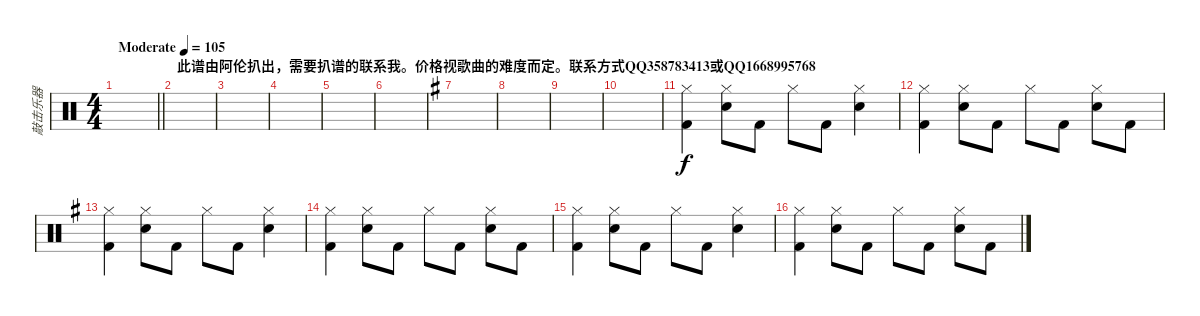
\track ("敲击乐器" "敲击乐器") {instrument percussion}
\staff {score}
\articulation defaults
\ts (4 4)
\tempo (105 "Moderate")
\clef neutral
\barLineRight lightlight
\ks c
|
\section ("" "此谱由阿伦扒出，需要扒谱的联系我。价格视歌曲的难度而定。联系方式QQ358783413或QQ1668995768")
|
|
|
|
|
\ks g
|
|
|
|
("Hi-Hat (closed)" "Kick (hit) 2").4 ("Hi-Hat (closed)" "Snare (hit) 2").8 "Kick (hit) 2".8 "Hi-Hat (closed)".8 "Kick (hit) 2".8 ("Hi-Hat (closed)" "Snare (hit) 2").4 |
("Hi-Hat (closed)" "Kick (hit) 2").4 ("Hi-Hat (closed)" "Snare (hit) 2").8 "Kick (hit) 2".8 "Hi-Hat (closed)".8 "Kick (hit) 2".8 ("Hi-Hat (closed)" "Snare (hit) 2").8 "Kick (hit) 2".8 |
("Hi-Hat (closed)" "Kick (hit) 2").4 ("Hi-Hat (closed)" "Snare (hit) 2").8 "Kick (hit) 2".8 "Hi-Hat (closed)".8 "Kick (hit) 2".8 ("Hi-Hat (closed)" "Snare (hit) 2").4 |
("Hi-Hat (closed)" "Kick (hit) 2").4 ("Hi-Hat (closed)" "Snare (hit) 2").8 "Kick (hit) 2".8 "Hi-Hat (closed)".8 "Kick (hit) 2".8 ("Hi-Hat (closed)" "Snare (hit) 2").8 "Kick (hit) 2".8 |
("Hi-Hat (closed)" "Kick (hit) 2").4 ("Hi-Hat (closed)" "Snare (hit) 2").8 "Kick (hit) 2".8 "Hi-Hat (closed)".8 "Kick (hit) 2".8 ("Hi-Hat (closed)" "Snare (hit) 2").4 |
("Hi-Hat (closed)" "Kick (hit) 2").4 ("Hi-Hat (closed)" "Snare (hit) 2").8 "Kick (hit) 2".8 "Hi-Hat (closed)".8 "Kick (hit) 2".8 ("Hi-Hat (closed)" "Snare (hit) 2").8 "Kick (hit) 2".8
